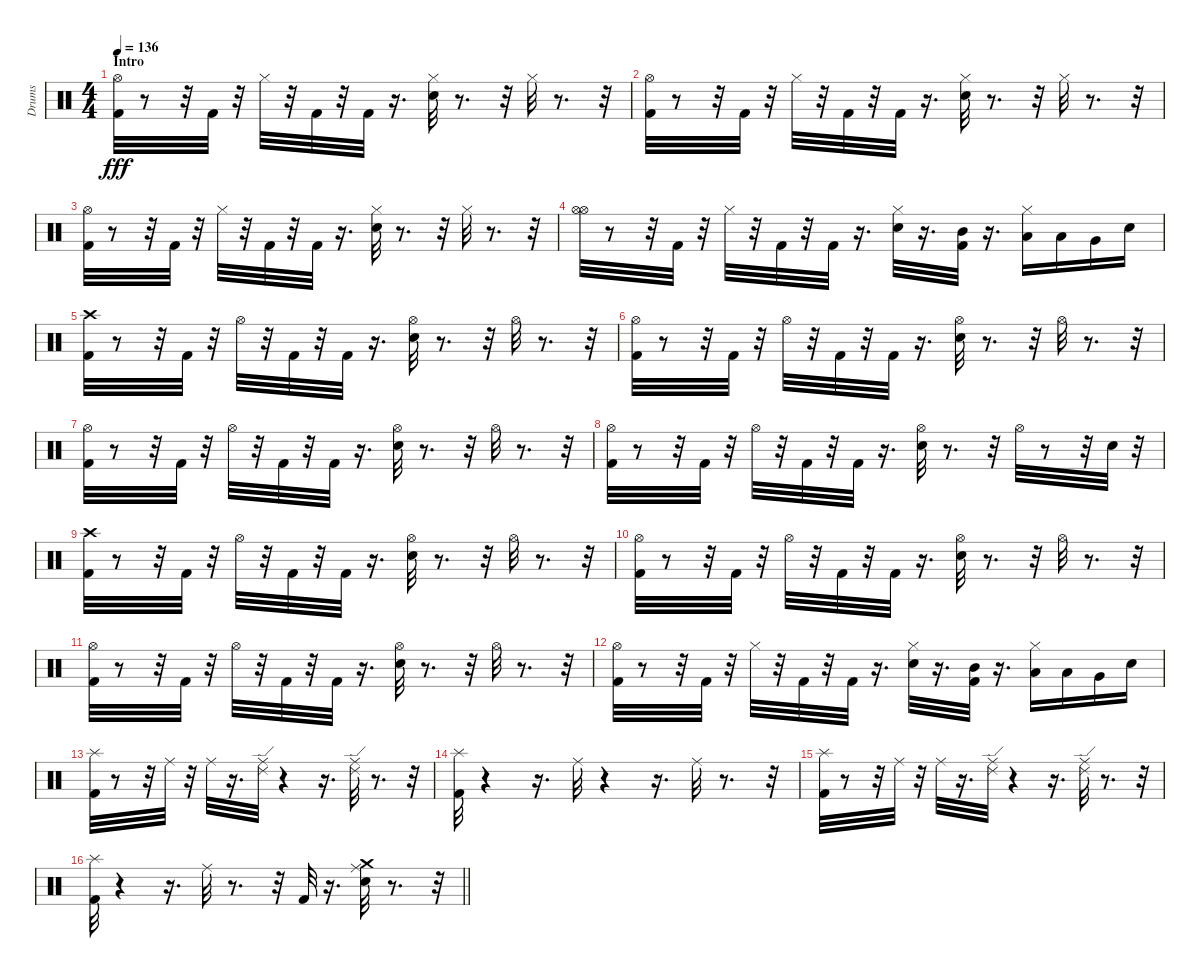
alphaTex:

\track ("Drums" "Drums") {instrument percussion}
\staff {score}
\articulation defaults
\ts (4 4)
\section ("" "Intro")
\tempo 136
\clef neutral
\ks c
("Kick (hit) 2" "Hi-Hat (open)").32{dy fff} r.8 r.32 "Kick (hit) 2".32 r.32 "Hi-Hat (closed)".32 r.32 "Kick (hit) 2".32 r.32 "Kick (hit) 2".32 r.16{d} ("Hi-Hat (closed)" "Electric Snare (hit)").32 r.8{d} r.32 "Hi-Hat (closed)".32 r.8{d} r.32 |
("Hi-Hat (open)" "Kick (hit) 2").32 r.8 r.32 "Kick (hit) 2".32 r.32 "Hi-Hat (closed)".32 r.32 "Kick (hit) 2".32 r.32 "Kick (hit) 2".32 r.16{d} ("Electric Snare (hit)" "Hi-Hat (closed)").32 r.8{d} r.32 "Hi-Hat (closed)".32 r.8{d} r.32 |
("Hi-Hat (open)" "Kick (hit) 2").32 r.8 r.32 "Kick (hit) 2".32 r.32 "Hi-Hat (closed)".32 r.32 "Kick (hit) 2".32 r.32 "Kick (hit) 2".32 r.16{d} ("Electric Snare (hit)" "Hi-Hat (closed)").32 r.8{d} r.32 "Hi-Hat (closed)".32 r.8{d} r.32 |
("Hi-Hat (open)" "Hi-Hat (open)").32 r.8 r.32 "Kick (hit) 2".32 r.32 "Hi-Hat (closed)".32 r.32 "Kick (hit) 2".32 r.32 "Kick (hit) 2".32 r.16{d} ("Hi-Hat (closed)" "Electric Snare (hit)").32 r.16{d} ("Mid Tom (hit)" "Kick (hit) 2").32 r.16{d} ("Low Tom (hit)" "Hi-Hat (closed)").16 "Low Tom (hit)".16 "Very Low Tom (hit)".16 "Electric Snare (hit)".16 |
("Crash high (hit)" "Kick (hit) 2").32 r.8 r.32 "Kick (hit) 2".32 r.32 "Hi-Hat (open)".32 r.32 "Kick (hit) 2".32 r.32 "Kick (hit) 2".32 r.16{d} ("Hi-Hat (open)" "Electric Snare (hit)").32 r.8{d} r.32 "Hi-Hat (open)".32 r.8{d} r.32 |
("Hi-Hat (open)" "Kick (hit) 2").32 r.8 r.32 "Kick (hit) 2".32 r.32 "Hi-Hat (open)".32 r.32 "Kick (hit) 2".32 r.32 "Kick (hit) 2".32 r.16{d} ("Hi-Hat (open)" "Electric Snare (hit)").32 r.8{d} r.32 "Hi-Hat (open)".32 r.8{d} r.32 |
("Hi-Hat (open)" "Kick (hit) 2").32 r.8 r.32 "Kick (hit) 2".32 r.32 "Hi-Hat (open)".32 r.32 "Kick (hit) 2".32 r.32 "Kick (hit) 2".32 r.16{d} ("Hi-Hat (open)" "Electric Snare (hit)").32 r.8{d} r.32 "Hi-Hat (open)".32 r.8{d} r.32 |
("Hi-Hat (open)" "Kick (hit) 2").32 r.8 r.32 "Kick (hit) 2".32 r.32 "Hi-Hat (open)".32 r.32 "Kick (hit) 2".32 r.32 "Kick (hit) 2".32 r.16{d} ("Hi-Hat (open)" "Electric Snare (hit)").32 r.8{d} r.32 "Hi-Hat (open)".32 r.8 r.32 "Electric Snare (hit)".32 r.32 |
("Crash high (hit)" "Kick (hit) 2").32 r.8 r.32 "Kick (hit) 2".32 r.32 "Hi-Hat (open)".32 r.32 "Kick (hit) 2".32 r.32 "Kick (hit) 2".32 r.16{d} ("Hi-Hat (open)" "Electric Snare (hit)").32 r.8{d} r.32 "Hi-Hat (open)".32 r.8{d} r.32 |
("Hi-Hat (open)" "Kick (hit) 2").32 r.8 r.32 "Kick (hit) 2".32 r.32 "Hi-Hat (open)".32 r.32 "Kick (hit) 2".32 r.32 "Kick (hit) 2".32 r.16{d} ("Hi-Hat (open)" "Electric Snare (hit)").32 r.8{d} r.32 "Hi-Hat (open)".32 r.8{d} r.32 |
("Hi-Hat (open)" "Kick (hit) 2").32 r.8 r.32 "Kick (hit) 2".32 r.32 "Hi-Hat (open)".32 r.32 "Kick (hit) 2".32 r.32 "Kick (hit) 2".32 r.16{d} ("Hi-Hat (open)" "Electric Snare (hit)").32 r.8{d} r.32 "Hi-Hat (open)".32 r.8{d} r.32 |
("Kick (hit) 2" "Hi-Hat (open)").32 r.8 r.32 "Kick (hit) 2".32 r.32 "Hi-Hat (closed)".32 r.32 "Kick (hit) 2".32 r.32 "Kick (hit) 2".32 r.16{d} ("Hi-Hat (closed)" "Electric Snare (hit)").32 r.16{d} ("Mid Tom (hit)" "Kick (hit) 2").32 r.16{d} ("Low Tom (hit)" "Hi-Hat (closed)").16 "Low Tom (hit)".16 "Very Low Tom (hit)".16 "Electric Snare (hit)".16 |
("Kick (hit) 2" "Splash (hit)").32 r.8 r.32 "Ride (middle)".32 r.32 "Ride (middle)".32 r.16{d} ("Ride (edge) 2" "Ride (middle)").32 r.4 r.16{d} ("Ride (edge) 2" "Ride (middle)").32 r.8{d} r.32 |
("Splash (hit)" "Kick (hit) 2").32 r.4 r.16{d} "Ride (middle)".32 r.4 r.16{d} "Ride (middle)".32 r.8{d} r.32 |
("Splash (hit)" "Kick (hit) 2").32 r.8 r.32 "Ride (middle)".32 r.32 "Ride (middle)".32 r.16{d} ("Ride (edge) 2" "Ride (middle)").32 r.4 r.16{d} ("Ride (edge) 2" "Ride (middle)").32 r.8{d} r.32 |
\barLineRight lightlight
("Splash (hit)" "Kick (hit) 2").32 r.4 r.16{d} "Ride (middle)".32 r.8{d} r.32 "Kick (hit) 2".32 r.16{d} ("Crash medium (hit)" "Ride (middle)" "Electric Snare (hit)").32 r.8{d} r.32
